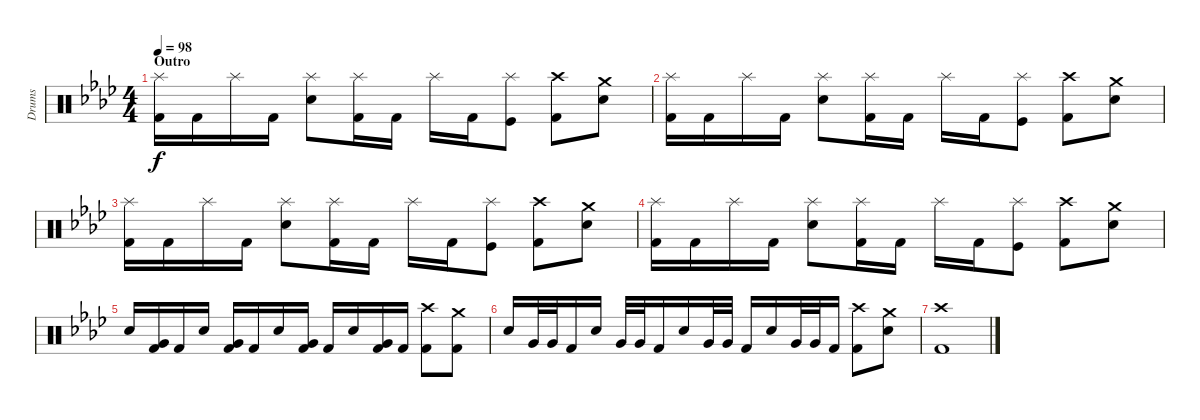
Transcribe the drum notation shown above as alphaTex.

\track ("Drums" "Drums") {instrument percussion}
\staff {score}
\articulation defaults
\ts (4 4)
\section ("" "Outro")
\tempo 98
\clef neutral
\ks ab
("Splash (hit)" "Kick (hit) 2").16{dy f} "Kick (hit) 2".16 "Splash (hit)".16 "Kick (hit) 2".16 ("Splash (hit)" "Snare (hit) 2").8 ("Splash (hit)" "Kick (hit) 2").16 "Kick (hit) 2".16 "Splash (hit)".16 "Kick (hit) 2".16 ("Splash (hit)" "Kick (hit)").8 ("Crash high (hit)" "Kick (hit) 2").8 ("Crash medium (hit)" "Snare (hit) 2").8 |
("Splash (hit)" "Kick (hit) 2").16 "Kick (hit) 2".16 "Splash (hit)".16 "Kick (hit) 2".16 ("Splash (hit)" "Snare (hit) 2").8 ("Splash (hit)" "Kick (hit) 2").16 "Kick (hit) 2".16 "Splash (hit)".16 "Kick (hit) 2".16 ("Splash (hit)" "Kick (hit)").8 ("Crash high (hit)" "Kick (hit) 2").8 ("Crash medium (hit)" "Snare (hit) 2").8 |
("Splash (hit)" "Kick (hit) 2").16 "Kick (hit) 2".16 "Splash (hit)".16 "Kick (hit) 2".16 ("Splash (hit)" "Snare (hit) 2").8 ("Splash (hit)" "Kick (hit) 2").16 "Kick (hit) 2".16 "Splash (hit)".16 "Kick (hit) 2".16 ("Splash (hit)" "Kick (hit)").8 ("Crash high (hit)" "Kick (hit) 2").8 ("Crash medium (hit)" "Snare (hit) 2").8 |
("Splash (hit)" "Kick (hit) 2").16 "Kick (hit) 2".16 "Splash (hit)".16 "Kick (hit) 2".16 ("Splash (hit)" "Snare (hit) 2").8 ("Splash (hit)" "Kick (hit) 2").16 "Kick (hit) 2".16 "Splash (hit)".16 "Kick (hit) 2".16 ("Splash (hit)" "Kick (hit)").8 ("Crash high (hit)" "Kick (hit) 2").8 ("Crash medium (hit)" "Snare (hit) 2").8 |
"Snare (hit) 2".16 ("Very Low Tom (hit)" "Kick (hit) 2").16 "Kick (hit) 2".16 "Snare (hit) 2".16 ("Very Low Tom (hit)" "Kick (hit) 2").16 "Kick (hit) 2".16 "Snare (hit) 2".16 ("Very Low Tom (hit)" "Kick (hit) 2").16 "Kick (hit) 2".16 "Snare (hit) 2".16 ("Very Low Tom (hit)" "Kick (hit) 2").16 "Kick (hit) 2".16 ("Crash high (hit)" "Kick (hit) 2").8 ("Crash medium (hit)" "Kick (hit) 2").8 |
"Snare (hit) 2".16 "Very Low Tom (hit)".32 "Very Low Tom (hit)".32 "Kick (hit) 2".16 "Snare (hit) 2".16 "Very Low Tom (hit)".32 "Very Low Tom (hit)".32 "Kick (hit) 2".16 "Snare (hit) 2".16 "Very Low Tom (hit)".32 "Very Low Tom (hit)".32 "Kick (hit) 2".16 "Snare (hit) 2".16 "Very Low Tom (hit)".32 "Very Low Tom (hit)".32 "Kick (hit) 2".16 ("Crash high (hit)" "Kick (hit) 2").8 ("Crash medium (hit)" "Snare (hit) 2").8 |
("Crash high (hit)" "Kick (hit) 2").1
